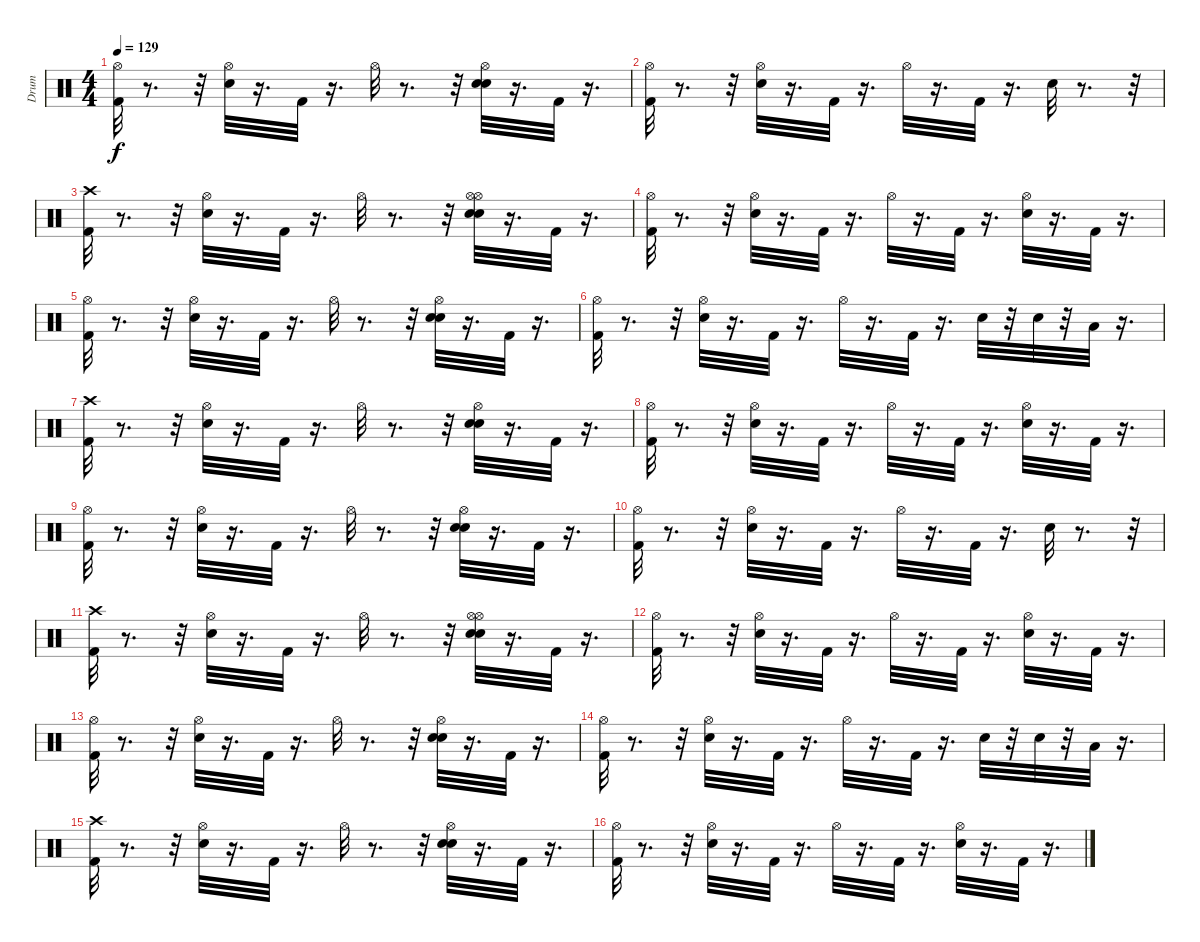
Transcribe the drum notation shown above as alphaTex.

\track ("Drum" "Drum") {instrument percussion}
\staff {score}
\articulation defaults
\ts (4 4)
\tempo 129
\clef neutral
\ks c
("Hi-Hat (open)" "Kick (hit) 2").32{dy f} r.8{d} r.32 ("Snare (hit) 2" "Hi-Hat (open)").32 r.16{d} "Kick (hit) 2".32 r.16{d} "Hi-Hat (open)".32 r.8{d} r.32 ("Snare (hit) 2" "Snare (hit) 2" "Hi-Hat (open)").32 r.16{d} "Kick (hit) 2".32 r.16{d} |
("Hi-Hat (open)" "Kick (hit) 2").32 r.8{d} r.32 ("Snare (hit) 2" "Hi-Hat (open)").32 r.16{d} "Kick (hit) 2".32 r.16{d} "Hi-Hat (open)".32 r.16{d} "Kick (hit) 2".32 r.16{d} "Snare (hit) 2".32 r.8{d} r.32 |
("Kick (hit) 2" "Crash high (hit)").32 r.8{d} r.32 ("Snare (hit) 2" "Hi-Hat (open)").32 r.16{d} "Kick (hit) 2".32 r.16{d} "Hi-Hat (open)".32 r.8{d} r.32 ("Snare (hit) 2" "Hi-Hat (open)" "Snare (hit) 2" "Hi-Hat (open)").32 r.16{d} "Kick (hit) 2".32 r.16{d} |
("Kick (hit) 2" "Hi-Hat (open)").32 r.8{d} r.32 ("Snare (hit) 2" "Hi-Hat (open)").32 r.16{d} "Kick (hit) 2".32 r.16{d} "Hi-Hat (open)".32 r.16{d} "Kick (hit) 2".32 r.16{d} ("Snare (hit) 2" "Hi-Hat (open)").32 r.16{d} "Kick (hit) 2".32 r.16{d} |
("Hi-Hat (open)" "Kick (hit) 2").32 r.8{d} r.32 ("Snare (hit) 2" "Hi-Hat (open)").32 r.16{d} "Kick (hit) 2".32 r.16{d} "Hi-Hat (open)".32 r.8{d} r.32 ("Snare (hit) 2" "Snare (hit) 2" "Hi-Hat (open)").32 r.16{d} "Kick (hit) 2".32 r.16{d} |
("Kick (hit) 2" "Hi-Hat (open)").32 r.8{d} r.32 ("Snare (hit) 2" "Hi-Hat (open)").32 r.16{d} "Kick (hit) 2".32 r.16{d} "Hi-Hat (open)".32 r.16{d} "Kick (hit) 2".32 r.16{d} "Snare (hit) 2".32 r.32 "Snare (hit) 2".32 r.32 "Low Floor Tom (hit)".32 r.16{d} |
("Kick (hit) 2" "Crash high (hit)").32 r.8{d} r.32 ("Snare (hit) 2" "Hi-Hat (open)").32 r.16{d} "Kick (hit) 2".32 r.16{d} "Hi-Hat (open)".32 r.8{d} r.32 ("Snare (hit) 2" "Snare (hit) 2" "Hi-Hat (open)").32 r.16{d} "Kick (hit) 2".32 r.16{d} |
("Kick (hit) 2" "Hi-Hat (open)").32 r.8{d} r.32 ("Snare (hit) 2" "Hi-Hat (open)").32 r.16{d} "Kick (hit) 2".32 r.16{d} "Hi-Hat (open)".32 r.16{d} "Kick (hit) 2".32 r.16{d} ("Hi-Hat (open)" "Snare (hit) 2").32 r.16{d} "Kick (hit) 2".32 r.16{d} |
("Hi-Hat (open)" "Kick (hit) 2").32 r.8{d} r.32 ("Snare (hit) 2" "Hi-Hat (open)").32 r.16{d} "Kick (hit) 2".32 r.16{d} "Hi-Hat (open)".32 r.8{d} r.32 ("Snare (hit) 2" "Hi-Hat (open)" "Snare (hit) 2").32 r.16{d} "Kick (hit) 2".32 r.16{d} |
("Hi-Hat (open)" "Kick (hit) 2").32 r.8{d} r.32 ("Snare (hit) 2" "Hi-Hat (open)").32 r.16{d} "Kick (hit) 2".32 r.16{d} "Hi-Hat (open)".32 r.16{d} "Kick (hit) 2".32 r.16{d} "Snare (hit) 2".32 r.8{d} r.32 |
("Kick (hit) 2" "Crash high (hit)").32 r.8{d} r.32 ("Snare (hit) 2" "Hi-Hat (open)").32 r.16{d} "Kick (hit) 2".32 r.16{d} "Hi-Hat (open)".32 r.8{d} r.32 ("Snare (hit) 2" "Hi-Hat (open)" "Snare (hit) 2" "Hi-Hat (open)").32 r.16{d} "Kick (hit) 2".32 r.16{d} |
("Kick (hit) 2" "Hi-Hat (open)").32 r.8{d} r.32 ("Snare (hit) 2" "Hi-Hat (open)").32 r.16{d} "Kick (hit) 2".32 r.16{d} "Hi-Hat (open)".32 r.16{d} "Kick (hit) 2".32 r.16{d} ("Snare (hit) 2" "Hi-Hat (open)").32 r.16{d} "Kick (hit) 2".32 r.16{d} |
("Hi-Hat (open)" "Kick (hit) 2").32 r.8{d} r.32 ("Snare (hit) 2" "Hi-Hat (open)").32 r.16{d} "Kick (hit) 2".32 r.16{d} "Hi-Hat (open)".32 r.8{d} r.32 ("Snare (hit) 2" "Hi-Hat (open)" "Snare (hit) 2").32 r.16{d} "Kick (hit) 2".32 r.16{d} |
("Kick (hit) 2" "Hi-Hat (open)").32 r.8{d} r.32 ("Snare (hit) 2" "Hi-Hat (open)").32 r.16{d} "Kick (hit) 2".32 r.16{d} "Hi-Hat (open)".32 r.16{d} "Kick (hit) 2".32 r.16{d} "Snare (hit) 2".32 r.32 "Snare (hit) 2".32 r.32 "Low Floor Tom (hit)".32 r.16{d} |
("Kick (hit) 2" "Crash high (hit)").32 r.8{d} r.32 ("Snare (hit) 2" "Hi-Hat (open)").32 r.16{d} "Kick (hit) 2".32 r.16{d} "Hi-Hat (open)".32 r.8{d} r.32 ("Snare (hit) 2" "Snare (hit) 2" "Hi-Hat (open)").32 r.16{d} "Kick (hit) 2".32 r.16{d} |
("Kick (hit) 2" "Hi-Hat (open)").32 r.8{d} r.32 ("Snare (hit) 2" "Hi-Hat (open)").32 r.16{d} "Kick (hit) 2".32 r.16{d} "Hi-Hat (open)".32 r.16{d} "Kick (hit) 2".32 r.16{d} ("Hi-Hat (open)" "Snare (hit) 2").32 r.16{d} "Kick (hit) 2".32 r.16{d}
